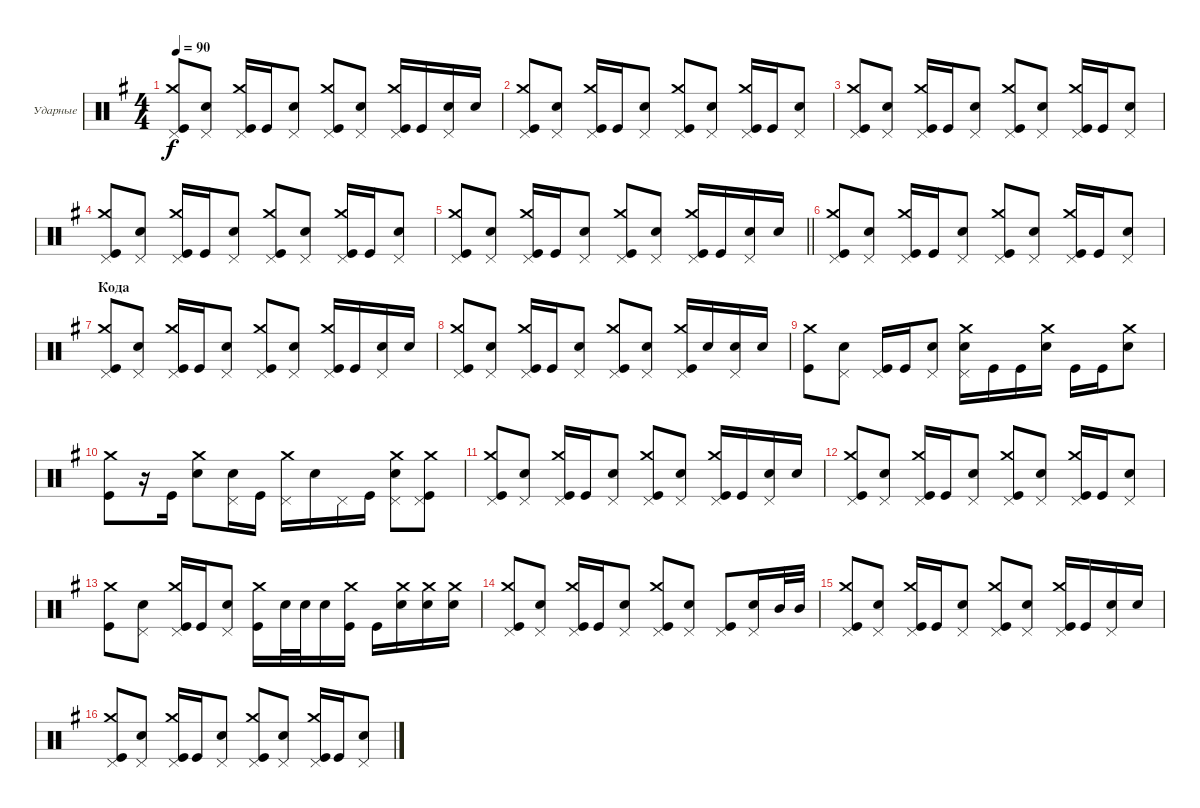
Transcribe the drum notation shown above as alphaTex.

\bracketExtendMode groupsimilarinstruments
\firstSystemTrackNameOrientation horizontal
\otherSystemsTrackNameOrientation horizontal
\track ("Александр Львов" "Ударные") {instrument percussion}
\staff {score}
\articulation defaults
\ts (4 4)
\tempo 90
\clef neutral
\ks eminor
("Kick (hit)" "Crash medium (hit)" "Pedal Hi-Hat (hit)").8{dy f} ("Snare (hit) 2" "Pedal Hi-Hat (hit)").8 ("Kick (hit)" "Crash medium (hit)" "Pedal Hi-Hat (hit)").16 "Kick (hit)".16 ("Snare (hit) 2" "Pedal Hi-Hat (hit)").8 ("Kick (hit)" "Crash medium (hit)" "Pedal Hi-Hat (hit)").8 ("Snare (hit) 2" "Pedal Hi-Hat (hit)").8 ("Kick (hit)" "Crash medium (hit)" "Pedal Hi-Hat (hit)").16 "Kick (hit)".16 ("Snare (hit) 2" "Pedal Hi-Hat (hit)").16 "Snare (hit) 2".16 |
("Kick (hit)" "Crash medium (hit)" "Pedal Hi-Hat (hit)").8 ("Snare (hit) 2" "Pedal Hi-Hat (hit)").8 ("Kick (hit)" "Crash medium (hit)" "Pedal Hi-Hat (hit)").16 "Kick (hit)".16 ("Snare (hit) 2" "Pedal Hi-Hat (hit)").8 ("Kick (hit)" "Crash medium (hit)" "Pedal Hi-Hat (hit)").8 ("Snare (hit) 2" "Pedal Hi-Hat (hit)").8 ("Kick (hit)" "Crash medium (hit)" "Pedal Hi-Hat (hit)").16 "Kick (hit)".16 ("Snare (hit) 2" "Pedal Hi-Hat (hit)").8 |
("Kick (hit)" "Crash medium (hit)" "Pedal Hi-Hat (hit)").8 ("Snare (hit) 2" "Pedal Hi-Hat (hit)").8 ("Kick (hit)" "Crash medium (hit)" "Pedal Hi-Hat (hit)").16 "Kick (hit)".16 ("Snare (hit) 2" "Pedal Hi-Hat (hit)").8 ("Kick (hit)" "Crash medium (hit)" "Pedal Hi-Hat (hit)").8 ("Snare (hit) 2" "Pedal Hi-Hat (hit)").8 ("Kick (hit)" "Crash medium (hit)" "Pedal Hi-Hat (hit)").16 "Kick (hit)".16 ("Snare (hit) 2" "Pedal Hi-Hat (hit)").8 |
("Kick (hit)" "Crash medium (hit)" "Pedal Hi-Hat (hit)").8 ("Snare (hit) 2" "Pedal Hi-Hat (hit)").8 ("Kick (hit)" "Crash medium (hit)" "Pedal Hi-Hat (hit)").16 "Kick (hit)".16 ("Snare (hit) 2" "Pedal Hi-Hat (hit)").8 ("Kick (hit)" "Crash medium (hit)" "Pedal Hi-Hat (hit)").8 ("Snare (hit) 2" "Pedal Hi-Hat (hit)").8 ("Kick (hit)" "Crash medium (hit)" "Pedal Hi-Hat (hit)").16 "Kick (hit)".16 ("Snare (hit) 2" "Pedal Hi-Hat (hit)").8 |
\barLineRight lightlight
("Kick (hit)" "Crash medium (hit)" "Pedal Hi-Hat (hit)").8 ("Snare (hit) 2" "Pedal Hi-Hat (hit)").8 ("Kick (hit)" "Crash medium (hit)" "Pedal Hi-Hat (hit)").16 "Kick (hit)".16 ("Snare (hit) 2" "Pedal Hi-Hat (hit)").8 ("Kick (hit)" "Crash medium (hit)" "Pedal Hi-Hat (hit)").8 ("Snare (hit) 2" "Pedal Hi-Hat (hit)").8 ("Kick (hit)" "Crash medium (hit)" "Pedal Hi-Hat (hit)").16 "Kick (hit)".16 ("Snare (hit) 2" "Pedal Hi-Hat (hit)").16 "Snare (hit) 2".16 |
("Kick (hit)" "Crash medium (hit)" "Pedal Hi-Hat (hit)").8 ("Snare (hit) 2" "Pedal Hi-Hat (hit)").8 ("Kick (hit)" "Crash medium (hit)" "Pedal Hi-Hat (hit)").16 "Kick (hit)".16 ("Snare (hit) 2" "Pedal Hi-Hat (hit)").8 ("Kick (hit)" "Crash medium (hit)" "Pedal Hi-Hat (hit)").8 ("Snare (hit) 2" "Pedal Hi-Hat (hit)").8 ("Kick (hit)" "Crash medium (hit)" "Pedal Hi-Hat (hit)").16 "Kick (hit)".16 ("Snare (hit) 2" "Pedal Hi-Hat (hit)").8 |
\section ("" "Кода")
("Kick (hit)" "Crash medium (hit)" "Pedal Hi-Hat (hit)").8 ("Snare (hit) 2" "Pedal Hi-Hat (hit)").8 ("Kick (hit)" "Crash medium (hit)" "Pedal Hi-Hat (hit)").16 "Kick (hit)".16 ("Snare (hit) 2" "Pedal Hi-Hat (hit)").8 ("Kick (hit)" "Crash medium (hit)" "Pedal Hi-Hat (hit)").8 ("Snare (hit) 2" "Pedal Hi-Hat (hit)").8 ("Kick (hit)" "Crash medium (hit)" "Pedal Hi-Hat (hit)").16 "Kick (hit)".16 ("Snare (hit) 2" "Pedal Hi-Hat (hit)").16 "Snare (hit) 2".16 |
("Kick (hit)" "Crash medium (hit)" "Pedal Hi-Hat (hit)").8 ("Snare (hit) 2" "Pedal Hi-Hat (hit)").8 ("Kick (hit)" "Crash medium (hit)" "Pedal Hi-Hat (hit)").16 "Kick (hit)".16 ("Snare (hit) 2" "Pedal Hi-Hat (hit)").8 ("Kick (hit)" "Crash medium (hit)" "Pedal Hi-Hat (hit)").8 ("Snare (hit) 2" "Pedal Hi-Hat (hit)").8 ("Kick (hit)" "Crash medium (hit)" "Pedal Hi-Hat (hit)").16 "Snare (hit) 2".16 ("Snare (hit) 2" "Pedal Hi-Hat (hit)").16 "Snare (hit) 2".16 |
("Kick (hit)" "Crash medium (hit)").8 ("Snare (hit) 2" "Pedal Hi-Hat (hit)").8 ("Kick (hit)" "Pedal Hi-Hat (hit)").16 "Kick (hit)".16 ("Snare (hit) 2" "Pedal Hi-Hat (hit)").8 ("Crash medium (hit)" "Snare (hit) 2" "Pedal Hi-Hat (hit)").16 "Kick (hit)".16 "Kick (hit)".16 ("Snare (hit) 2" "Crash medium (hit)").16 "Kick (hit)".16 "Kick (hit)".16 ("Snare (hit) 2" "Crash medium (hit)").8 |
("Kick (hit)" "Crash medium (hit)").8 r.16 "Kick (hit)".16 ("Snare (hit) 2" "Crash medium (hit)").8 ("Snare (hit) 2" "Pedal Hi-Hat (hit)").16 "Kick (hit)".16 ("Pedal Hi-Hat (hit)" "Crash medium (hit)").16 "Snare (hit) 2".16 "Pedal Hi-Hat (hit)".16 "Kick (hit)".16 ("Snare (hit) 2" "Crash medium (hit)" "Pedal Hi-Hat (hit)").8 ("Kick (hit)" "Crash medium (hit)" "Pedal Hi-Hat (hit)").8 |
("Kick (hit)" "Crash medium (hit)" "Pedal Hi-Hat (hit)").8 ("Snare (hit) 2" "Pedal Hi-Hat (hit)").8 ("Kick (hit)" "Crash medium (hit)" "Pedal Hi-Hat (hit)").16 "Kick (hit)".16 ("Snare (hit) 2" "Pedal Hi-Hat (hit)").8 ("Kick (hit)" "Crash medium (hit)" "Pedal Hi-Hat (hit)").8 ("Snare (hit) 2" "Pedal Hi-Hat (hit)").8 ("Kick (hit)" "Crash medium (hit)" "Pedal Hi-Hat (hit)").16 "Kick (hit)".16 ("Snare (hit) 2" "Pedal Hi-Hat (hit)").16 "Snare (hit) 2".16 |
("Kick (hit)" "Crash medium (hit)" "Pedal Hi-Hat (hit)").8 ("Snare (hit) 2" "Pedal Hi-Hat (hit)").8 ("Kick (hit)" "Crash medium (hit)" "Pedal Hi-Hat (hit)").16 "Kick (hit)".16 ("Snare (hit) 2" "Pedal Hi-Hat (hit)").8 ("Kick (hit)" "Crash medium (hit)" "Pedal Hi-Hat (hit)").8 ("Snare (hit) 2" "Pedal Hi-Hat (hit)").8 ("Kick (hit)" "Crash medium (hit)" "Pedal Hi-Hat (hit)").16 "Kick (hit)".16 ("Snare (hit) 2" "Pedal Hi-Hat (hit)").8 |
("Kick (hit)" "Crash medium (hit)").8 ("Snare (hit) 2" "Pedal Hi-Hat (hit)").8 ("Kick (hit)" "Pedal Hi-Hat (hit)" "Crash medium (hit)").16 "Kick (hit)".16 ("Snare (hit) 2" "Pedal Hi-Hat (hit)").8 ("Crash medium (hit)" "Kick (hit)").16 "Snare (hit) 2".32 "Snare (hit) 2".32 "Snare (hit) 2".16 ("Kick (hit)" "Crash medium (hit)").16 "Kick (hit)".16 ("Snare (hit) 2" "Crash medium (hit)").16 ("Snare (hit) 2" "Crash medium (hit)").16 ("Snare (hit) 2" "Crash medium (hit)").16 |
("Pedal Hi-Hat (hit)" "Kick (hit)" "Crash medium (hit)").8 ("Snare (hit) 2" "Pedal Hi-Hat (hit)").8 ("Kick (hit)" "Pedal Hi-Hat (hit)" "Crash medium (hit)").16 "Kick (hit)".16 ("Snare (hit) 2" "Pedal Hi-Hat (hit)").8 ("Kick (hit)" "Pedal Hi-Hat (hit)" "Crash medium (hit)").8 ("Snare (hit) 2" "Pedal Hi-Hat (hit)").8 ("Kick (hit)" "Pedal Hi-Hat (hit)").8 ("Pedal Hi-Hat (hit)" "Snare (hit) 2").16 "Mid Tom (hit)".32 "Mid Tom (hit)".32 |
("Kick (hit)" "Crash medium (hit)" "Pedal Hi-Hat (hit)").8 ("Snare (hit) 2" "Pedal Hi-Hat (hit)").8 ("Kick (hit)" "Crash medium (hit)" "Pedal Hi-Hat (hit)").16 "Kick (hit)".16 ("Snare (hit) 2" "Pedal Hi-Hat (hit)").8 ("Kick (hit)" "Crash medium (hit)" "Pedal Hi-Hat (hit)").8 ("Snare (hit) 2" "Pedal Hi-Hat (hit)").8 ("Kick (hit)" "Crash medium (hit)" "Pedal Hi-Hat (hit)").16 "Kick (hit)".16 ("Snare (hit) 2" "Pedal Hi-Hat (hit)").16 "Snare (hit) 2".16 |
("Kick (hit)" "Crash medium (hit)" "Pedal Hi-Hat (hit)").8 ("Snare (hit) 2" "Pedal Hi-Hat (hit)").8 ("Kick (hit)" "Crash medium (hit)" "Pedal Hi-Hat (hit)").16 "Kick (hit)".16 ("Snare (hit) 2" "Pedal Hi-Hat (hit)").8 ("Kick (hit)" "Crash medium (hit)" "Pedal Hi-Hat (hit)").8 ("Snare (hit) 2" "Pedal Hi-Hat (hit)").8 ("Kick (hit)" "Crash medium (hit)" "Pedal Hi-Hat (hit)").16 "Kick (hit)".16 ("Snare (hit) 2" "Pedal Hi-Hat (hit)").8
